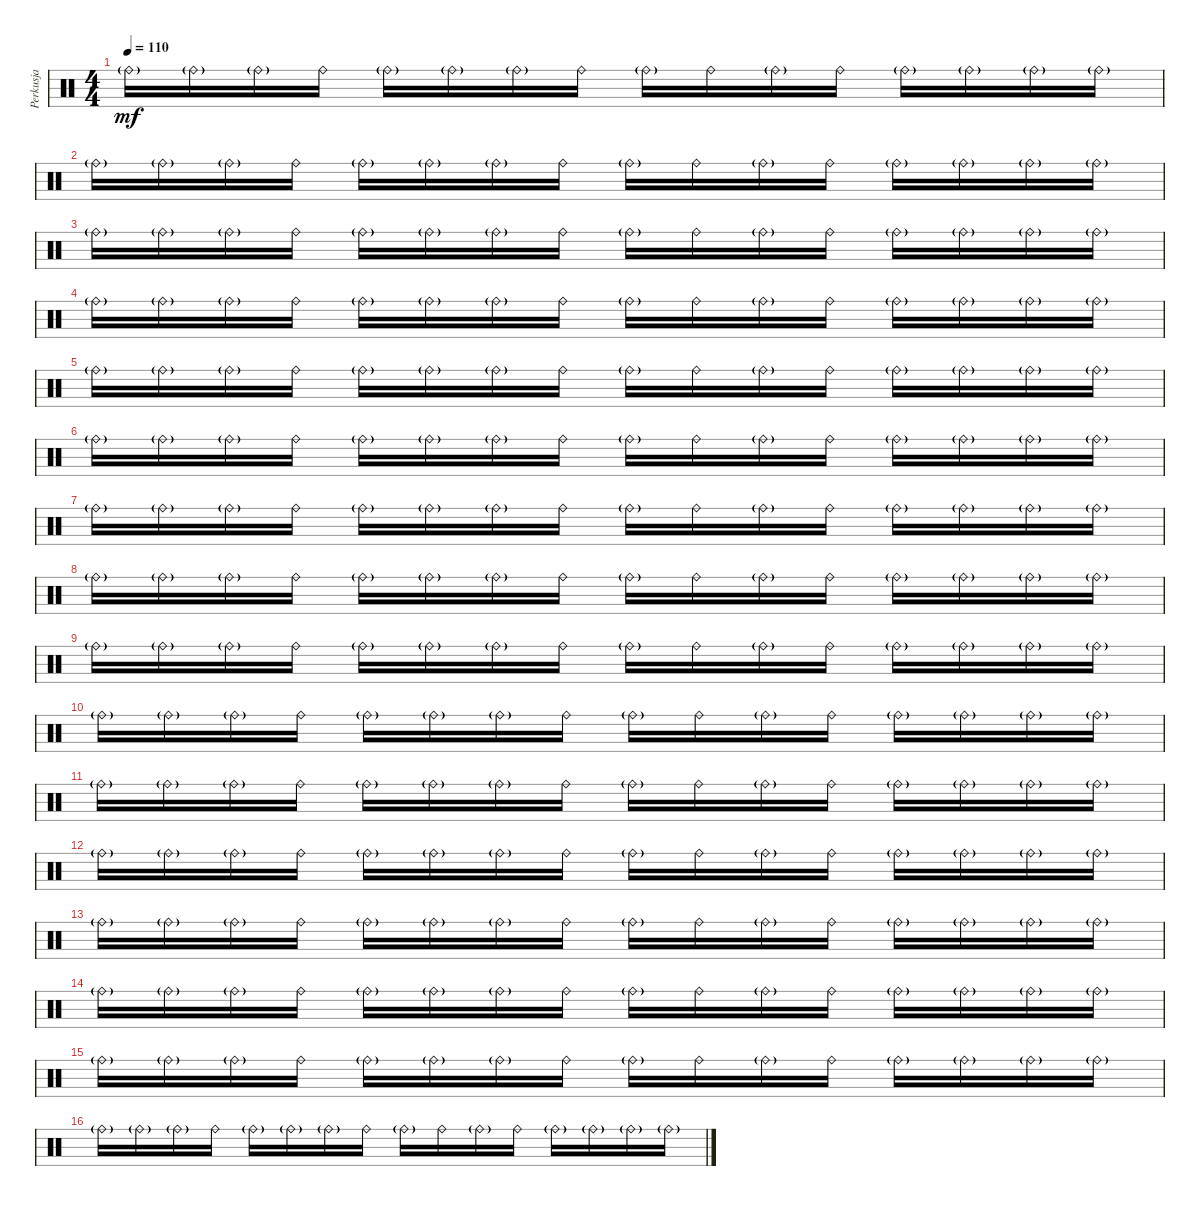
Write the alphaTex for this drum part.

\track ("Perkusja" "Perkusja") {instrument percussion}
\staff {score}
\articulation defaults
\ts (4 4)
\tempo 110
\clef neutral
\ks c "Ride (bell)"{g}.16{dy mf} "Ride (bell)"{g}.16 "Ride (bell)"{g}.16 "Ride (bell)".16 "Ride (bell)"{g}.16 "Ride (bell)"{g}.16 "Ride (bell)"{g}.16 "Ride (bell)".16 "Ride (bell)"{g}.16 "Ride (bell)".16 "Ride (bell)"{g}.16 "Ride (bell)".16 "Ride (bell)"{g}.16 "Ride (bell)"{g}.16 "Ride (bell)"{g}.16 "Ride (bell)"{g}.16
|
"Ride (bell)"{g}.16 "Ride (bell)"{g}.16 "Ride (bell)"{g}.16 "Ride (bell)".16 "Ride (bell)"{g}.16 "Ride (bell)"{g}.16 "Ride (bell)"{g}.16 "Ride (bell)".16 "Ride (bell)"{g}.16 "Ride (bell)".16 "Ride (bell)"{g}.16 "Ride (bell)".16 "Ride (bell)"{g}.16 "Ride (bell)"{g}.16 "Ride (bell)"{g}.16 "Ride (bell)"{g}.16 |
"Ride (bell)"{g}.16 "Ride (bell)"{g}.16 "Ride (bell)"{g}.16 "Ride (bell)".16 "Ride (bell)"{g}.16 "Ride (bell)"{g}.16 "Ride (bell)"{g}.16 "Ride (bell)".16 "Ride (bell)"{g}.16 "Ride (bell)".16 "Ride (bell)"{g}.16 "Ride (bell)".16 "Ride (bell)"{g}.16 "Ride (bell)"{g}.16 "Ride (bell)"{g}.16 "Ride (bell)"{g}.16 |
"Ride (bell)"{g}.16 "Ride (bell)"{g}.16 "Ride (bell)"{g}.16 "Ride (bell)".16 "Ride (bell)"{g}.16 "Ride (bell)"{g}.16 "Ride (bell)"{g}.16 "Ride (bell)".16 "Ride (bell)"{g}.16 "Ride (bell)".16 "Ride (bell)"{g}.16 "Ride (bell)".16 "Ride (bell)"{g}.16 "Ride (bell)"{g}.16 "Ride (bell)"{g}.16 "Ride (bell)"{g}.16 |
"Ride (bell)"{g}.16 "Ride (bell)"{g}.16 "Ride (bell)"{g}.16 "Ride (bell)".16 "Ride (bell)"{g}.16 "Ride (bell)"{g}.16 "Ride (bell)"{g}.16 "Ride (bell)".16 "Ride (bell)"{g}.16 "Ride (bell)".16 "Ride (bell)"{g}.16 "Ride (bell)".16 "Ride (bell)"{g}.16 "Ride (bell)"{g}.16 "Ride (bell)"{g}.16 "Ride (bell)"{g}.16 |
"Ride (bell)"{g}.16 "Ride (bell)"{g}.16 "Ride (bell)"{g}.16 "Ride (bell)".16 "Ride (bell)"{g}.16 "Ride (bell)"{g}.16 "Ride (bell)"{g}.16 "Ride (bell)".16 "Ride (bell)"{g}.16 "Ride (bell)".16 "Ride (bell)"{g}.16 "Ride (bell)".16 "Ride (bell)"{g}.16 "Ride (bell)"{g}.16 "Ride (bell)"{g}.16 "Ride (bell)"{g}.16 |
"Ride (bell)"{g}.16 "Ride (bell)"{g}.16 "Ride (bell)"{g}.16 "Ride (bell)".16 "Ride (bell)"{g}.16 "Ride (bell)"{g}.16 "Ride (bell)"{g}.16 "Ride (bell)".16 "Ride (bell)"{g}.16 "Ride (bell)".16 "Ride (bell)"{g}.16 "Ride (bell)".16 "Ride (bell)"{g}.16 "Ride (bell)"{g}.16 "Ride (bell)"{g}.16 "Ride (bell)"{g}.16 |
"Ride (bell)"{g}.16 "Ride (bell)"{g}.16 "Ride (bell)"{g}.16 "Ride (bell)".16 "Ride (bell)"{g}.16 "Ride (bell)"{g}.16 "Ride (bell)"{g}.16 "Ride (bell)".16 "Ride (bell)"{g}.16 "Ride (bell)".16 "Ride (bell)"{g}.16 "Ride (bell)".16 "Ride (bell)"{g}.16 "Ride (bell)"{g}.16 "Ride (bell)"{g}.16 "Ride (bell)"{g}.16 |
"Ride (bell)"{g}.16 "Ride (bell)"{g}.16 "Ride (bell)"{g}.16 "Ride (bell)".16 "Ride (bell)"{g}.16 "Ride (bell)"{g}.16 "Ride (bell)"{g}.16 "Ride (bell)".16 "Ride (bell)"{g}.16 "Ride (bell)".16 "Ride (bell)"{g}.16 "Ride (bell)".16 "Ride (bell)"{g}.16 "Ride (bell)"{g}.16 "Ride (bell)"{g}.16 "Ride (bell)"{g}.16 |
"Ride (bell)"{g}.16 "Ride (bell)"{g}.16 "Ride (bell)"{g}.16 "Ride (bell)".16 "Ride (bell)"{g}.16 "Ride (bell)"{g}.16 "Ride (bell)"{g}.16 "Ride (bell)".16 "Ride (bell)"{g}.16 "Ride (bell)".16 "Ride (bell)"{g}.16 "Ride (bell)".16 "Ride (bell)"{g}.16 "Ride (bell)"{g}.16 "Ride (bell)"{g}.16 "Ride (bell)"{g}.16 |
"Ride (bell)"{g}.16 "Ride (bell)"{g}.16 "Ride (bell)"{g}.16 "Ride (bell)".16 "Ride (bell)"{g}.16 "Ride (bell)"{g}.16 "Ride (bell)"{g}.16 "Ride (bell)".16 "Ride (bell)"{g}.16 "Ride (bell)".16 "Ride (bell)"{g}.16 "Ride (bell)".16 "Ride (bell)"{g}.16 "Ride (bell)"{g}.16 "Ride (bell)"{g}.16 "Ride (bell)"{g}.16 |
"Ride (bell)"{g}.16 "Ride (bell)"{g}.16 "Ride (bell)"{g}.16 "Ride (bell)".16 "Ride (bell)"{g}.16 "Ride (bell)"{g}.16 "Ride (bell)"{g}.16 "Ride (bell)".16 "Ride (bell)"{g}.16 "Ride (bell)".16 "Ride (bell)"{g}.16 "Ride (bell)".16 "Ride (bell)"{g}.16 "Ride (bell)"{g}.16 "Ride (bell)"{g}.16 "Ride (bell)"{g}.16 |
"Ride (bell)"{g}.16 "Ride (bell)"{g}.16 "Ride (bell)"{g}.16 "Ride (bell)".16 "Ride (bell)"{g}.16 "Ride (bell)"{g}.16 "Ride (bell)"{g}.16 "Ride (bell)".16 "Ride (bell)"{g}.16 "Ride (bell)".16 "Ride (bell)"{g}.16 "Ride (bell)".16 "Ride (bell)"{g}.16 "Ride (bell)"{g}.16 "Ride (bell)"{g}.16 "Ride (bell)"{g}.16 |
"Ride (bell)"{g}.16 "Ride (bell)"{g}.16 "Ride (bell)"{g}.16 "Ride (bell)".16 "Ride (bell)"{g}.16 "Ride (bell)"{g}.16 "Ride (bell)"{g}.16 "Ride (bell)".16 "Ride (bell)"{g}.16 "Ride (bell)".16 "Ride (bell)"{g}.16 "Ride (bell)".16 "Ride (bell)"{g}.16 "Ride (bell)"{g}.16 "Ride (bell)"{g}.16 "Ride (bell)"{g}.16 |
"Ride (bell)"{g}.16 "Ride (bell)"{g}.16 "Ride (bell)"{g}.16 "Ride (bell)".16 "Ride (bell)"{g}.16 "Ride (bell)"{g}.16 "Ride (bell)"{g}.16 "Ride (bell)".16 "Ride (bell)"{g}.16 "Ride (bell)".16 "Ride (bell)"{g}.16 "Ride (bell)".16 "Ride (bell)"{g}.16 "Ride (bell)"{g}.16 "Ride (bell)"{g}.16 "Ride (bell)"{g}.16 |
"Ride (bell)"{g}.16 "Ride (bell)"{g}.16 "Ride (bell)"{g}.16 "Ride (bell)".16 "Ride (bell)"{g}.16 "Ride (bell)"{g}.16 "Ride (bell)"{g}.16 "Ride (bell)".16 "Ride (bell)"{g}.16 "Ride (bell)".16 "Ride (bell)"{g}.16 "Ride (bell)".16 "Ride (bell)"{g}.16 "Ride (bell)"{g}.16 "Ride (bell)"{g}.16 "Ride (bell)"{g}.16
